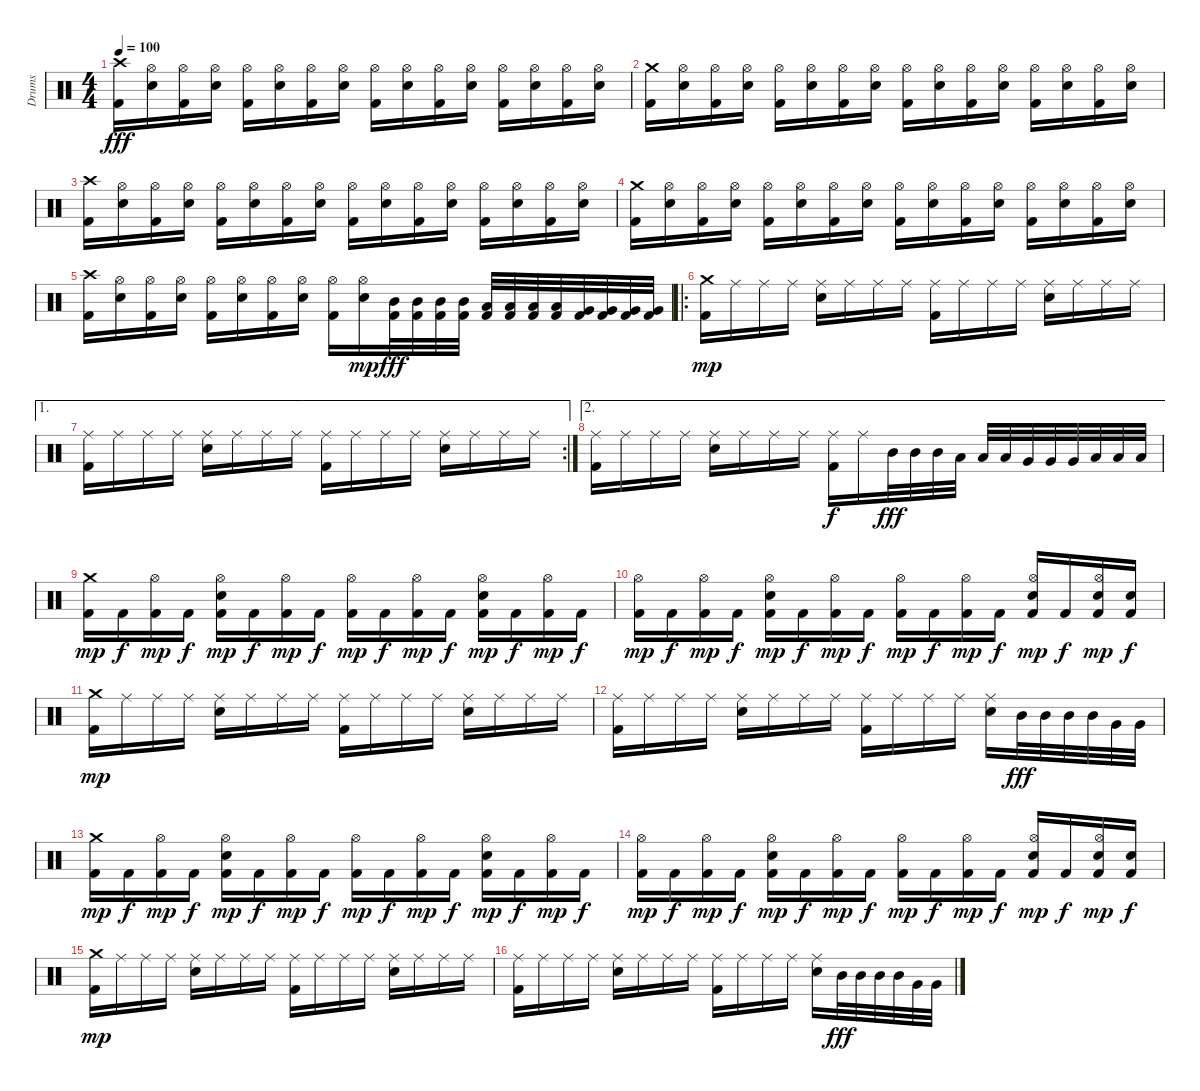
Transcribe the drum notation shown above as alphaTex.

\track ("Drums" "Drums") {instrument percussion}
\staff {score}
\articulation defaults
\ts (4 4)
\tempo 100
\clef neutral
\ks c
("Crash high (hit)" "Kick (hit) 2").16{dy fff} ("Hi-Hat (open)" "Snare (hit) 2").16 ("Hi-Hat (open)" "Kick (hit) 2").16 ("Hi-Hat (open)" "Snare (hit) 2").16 ("Hi-Hat (open)" "Kick (hit) 2").16 ("Hi-Hat (open)" "Snare (hit) 2").16 ("Hi-Hat (open)" "Kick (hit) 2").16 ("Hi-Hat (open)" "Snare (hit) 2").16 ("Hi-Hat (open)" "Kick (hit) 2").16 ("Hi-Hat (open)" "Snare (hit) 2").16 ("Hi-Hat (open)" "Kick (hit) 2").16 ("Hi-Hat (open)" "Snare (hit) 2").16 ("Hi-Hat (open)" "Kick (hit) 2").16 ("Hi-Hat (open)" "Snare (hit) 2").16 ("Hi-Hat (open)" "Kick (hit) 2").16 ("Hi-Hat (open)" "Snare (hit) 2").16 |
("Crash medium (hit)" "Kick (hit) 2").16 ("Hi-Hat (open)" "Snare (hit) 2").16 ("Hi-Hat (open)" "Kick (hit) 2").16 ("Hi-Hat (open)" "Snare (hit) 2").16 ("Hi-Hat (open)" "Kick (hit) 2").16 ("Hi-Hat (open)" "Snare (hit) 2").16 ("Hi-Hat (open)" "Kick (hit) 2").16 ("Hi-Hat (open)" "Snare (hit) 2").16 ("Hi-Hat (open)" "Kick (hit) 2").16 ("Hi-Hat (open)" "Snare (hit) 2").16 ("Hi-Hat (open)" "Kick (hit) 2").16 ("Hi-Hat (open)" "Snare (hit) 2").16 ("Hi-Hat (open)" "Kick (hit) 2").16 ("Hi-Hat (open)" "Snare (hit) 2").16 ("Hi-Hat (open)" "Kick (hit) 2").16 ("Hi-Hat (open)" "Snare (hit) 2").16 |
("Crash high (hit)" "Kick (hit) 2").16 ("Hi-Hat (open)" "Snare (hit) 2").16 ("Hi-Hat (open)" "Kick (hit) 2").16 ("Hi-Hat (open)" "Snare (hit) 2").16 ("Hi-Hat (open)" "Kick (hit) 2").16 ("Hi-Hat (open)" "Snare (hit) 2").16 ("Hi-Hat (open)" "Kick (hit) 2").16 ("Hi-Hat (open)" "Snare (hit) 2").16 ("Hi-Hat (open)" "Kick (hit) 2").16 ("Hi-Hat (open)" "Snare (hit) 2").16 ("Hi-Hat (open)" "Kick (hit) 2").16 ("Hi-Hat (open)" "Snare (hit) 2").16 ("Hi-Hat (open)" "Kick (hit) 2").16 ("Hi-Hat (open)" "Snare (hit) 2").16 ("Hi-Hat (open)" "Kick (hit) 2").16 ("Hi-Hat (open)" "Snare (hit) 2").16 |
("Crash medium (hit)" "Kick (hit) 2").16 ("Hi-Hat (open)" "Snare (hit) 2").16 ("Hi-Hat (open)" "Kick (hit) 2").16 ("Hi-Hat (open)" "Snare (hit) 2").16 ("Hi-Hat (open)" "Kick (hit) 2").16 ("Hi-Hat (open)" "Snare (hit) 2").16 ("Hi-Hat (open)" "Kick (hit) 2").16 ("Hi-Hat (open)" "Snare (hit) 2").16 ("Hi-Hat (open)" "Kick (hit) 2").16 ("Hi-Hat (open)" "Snare (hit) 2").16 ("Hi-Hat (open)" "Kick (hit) 2").16 ("Hi-Hat (open)" "Snare (hit) 2").16 ("Hi-Hat (open)" "Kick (hit) 2").16 ("Hi-Hat (open)" "Snare (hit) 2").16 ("Hi-Hat (open)" "Kick (hit) 2").16 ("Hi-Hat (open)" "Snare (hit) 2").16 |
("Crash high (hit)" "Kick (hit) 2").16 ("Hi-Hat (open)" "Snare (hit) 2").16 ("Hi-Hat (open)" "Kick (hit) 2").16 ("Hi-Hat (open)" "Snare (hit) 2").16 ("Hi-Hat (open)" "Kick (hit) 2").16 ("Hi-Hat (open)" "Snare (hit) 2").16 ("Hi-Hat (open)" "Kick (hit) 2").16 ("Hi-Hat (open)" "Snare (hit) 2").16 ("Hi-Hat (open)" "Kick (hit) 2").16 ("Hi-Hat (open)" "Snare (hit) 2").16{dy mp} ("Mid Tom (hit)" "Kick (hit) 2").32{dy fff} ("Mid Tom (hit)" "Kick (hit) 2").32 ("Mid Tom (hit)" "Kick (hit) 2").32 ("Mid Tom (hit)" "Kick (hit) 2").32 ("Low Tom (hit)" "Kick (hit) 2").32 ("Low Tom (hit)" "Kick (hit) 2").32 ("Low Tom (hit)" "Kick (hit) 2").32 ("Low Tom (hit)" "Kick (hit) 2").32 ("Very Low Tom (hit)" "Kick (hit) 2").32 ("Very Low Tom (hit)" "Kick (hit) 2").32 ("Very Low Tom (hit)" "Kick (hit) 2").32 ("Very Low Tom (hit)" "Kick (hit) 2").32 |
\ro
("Crash medium (hit)" "Kick (hit) 2").16{dy mp} "Ride (middle)".16 "Ride (middle)".16 "Ride (middle)".16 ("Ride (middle)" "Snare (hit) 2").16 "Ride (middle)".16 "Ride (middle)".16 "Ride (middle)".16 ("Ride (middle)" "Kick (hit) 2").16 "Ride (middle)".16 "Ride (middle)".16 "Ride (middle)".16 ("Ride (middle)" "Snare (hit) 2").16 "Ride (middle)".16 "Ride (middle)".16 "Ride (middle)".16 |
\ae 1
\rc 2
("Ride (middle)" "Kick (hit) 2").16 "Ride (middle)".16 "Ride (middle)".16 "Ride (middle)".16 ("Ride (middle)" "Snare (hit) 2").16 "Ride (middle)".16 "Ride (middle)".16 "Ride (middle)".16 ("Ride (middle)" "Kick (hit) 2").16 "Ride (middle)".16 "Ride (middle)".16 "Ride (middle)".16 ("Ride (middle)" "Snare (hit) 2").16 "Ride (middle)".16 "Ride (middle)".16 "Ride (middle)".16 |
\ae 2
("Ride (middle)" "Kick (hit) 2").16 "Ride (middle)".16 "Ride (middle)".16 "Ride (middle)".16 ("Ride (middle)" "Snare (hit) 2").16 "Ride (middle)".16 "Ride (middle)".16 "Ride (middle)".16 ("Ride (middle)" "Kick (hit) 2").16{dy f} "Ride (middle)".16 "Mid Tom (hit)".32{dy fff} "Mid Tom (hit)".32 "Mid Tom (hit)".32 "Low Tom (hit)".32 "Low Tom (hit)".32 "Low Tom (hit)".32 "Very Low Tom (hit)".32 "Very Low Tom (hit)".32 "Very Low Tom (hit)".32 "Low Floor Tom (hit)".32 "Low Floor Tom (hit)".32 "Low Floor Tom (hit)".32 |
("Crash medium (hit)" "Kick (hit) 2").16{dy mp} "Kick (hit) 2".16{dy f} ("Hi-Hat (open)" "Kick (hit) 2").16{dy mp} "Kick (hit) 2".16{dy f} ("Hi-Hat (open)" "Snare (hit) 2" "Kick (hit) 2").16{dy mp} "Kick (hit) 2".16{dy f} ("Hi-Hat (open)" "Kick (hit) 2").16{dy mp} "Kick (hit) 2".16{dy f} ("Hi-Hat (open)" "Kick (hit) 2").16{dy mp} "Kick (hit) 2".16{dy f} ("Hi-Hat (open)" "Kick (hit) 2").16{dy mp} "Kick (hit) 2".16{dy f} ("Hi-Hat (open)" "Snare (hit) 2" "Kick (hit) 2").16{dy mp} "Kick (hit) 2".16{dy f} ("Hi-Hat (open)" "Kick (hit) 2").16{dy mp} "Kick (hit) 2".16{dy f} |
("Hi-Hat (open)" "Kick (hit) 2").16{dy mp} "Kick (hit) 2".16{dy f} ("Hi-Hat (open)" "Kick (hit) 2").16{dy mp} "Kick (hit) 2".16{dy f} ("Hi-Hat (open)" "Snare (hit) 2" "Kick (hit) 2").16{dy mp} "Kick (hit) 2".16{dy f} ("Hi-Hat (open)" "Kick (hit) 2").16{dy mp} "Kick (hit) 2".16{dy f} ("Hi-Hat (open)" "Kick (hit) 2").16{dy mp} "Kick (hit) 2".16{dy f} ("Hi-Hat (open)" "Kick (hit) 2").16{dy mp} "Kick (hit) 2".16{dy f} ("Hi-Hat (open)" "Snare (hit) 2" "Kick (hit) 2").16{dy mp} "Kick (hit) 2".16{dy f} ("Hi-Hat (open)" "Snare (hit) 2" "Kick (hit) 2").16{dy mp} ("Snare (hit) 2" "Kick (hit) 2").16{dy f} |
("Crash medium (hit)" "Kick (hit) 2").16{dy mp} "Ride (middle)".16 "Ride (middle)".16 "Ride (middle)".16 ("Ride (middle)" "Snare (hit) 2").16 "Ride (middle)".16 "Ride (middle)".16 "Ride (middle)".16 ("Ride (middle)" "Kick (hit) 2").16 "Ride (middle)".16 "Ride (middle)".16 "Ride (middle)".16 ("Ride (middle)" "Snare (hit) 2").16 "Ride (middle)".16 "Ride (middle)".16 "Ride (middle)".16 |
("Ride (middle)" "Kick (hit) 2").16 "Ride (middle)".16 "Ride (middle)".16 "Ride (middle)".16 ("Ride (middle)" "Snare (hit) 2").16 "Ride (middle)".16 "Ride (middle)".16 "Ride (middle)".16 ("Ride (middle)" "Kick (hit) 2").16 "Ride (middle)".16 "Ride (middle)".16 "Ride (middle)".16 ("Ride (middle)" "Snare (hit) 2").16 "Mid Tom (hit)".32{dy fff} "Mid Tom (hit)".32 "Mid Tom (hit)".32 "Mid Tom (hit)".32 "Very Low Tom (hit)".32 "Very Low Tom (hit)".32 |
("Crash medium (hit)" "Kick (hit) 2").16{dy mp} "Kick (hit) 2".16{dy f} ("Hi-Hat (open)" "Kick (hit) 2").16{dy mp} "Kick (hit) 2".16{dy f} ("Hi-Hat (open)" "Snare (hit) 2" "Kick (hit) 2").16{dy mp} "Kick (hit) 2".16{dy f} ("Hi-Hat (open)" "Kick (hit) 2").16{dy mp} "Kick (hit) 2".16{dy f} ("Hi-Hat (open)" "Kick (hit) 2").16{dy mp} "Kick (hit) 2".16{dy f} ("Hi-Hat (open)" "Kick (hit) 2").16{dy mp} "Kick (hit) 2".16{dy f} ("Hi-Hat (open)" "Snare (hit) 2" "Kick (hit) 2").16{dy mp} "Kick (hit) 2".16{dy f} ("Hi-Hat (open)" "Kick (hit) 2").16{dy mp} "Kick (hit) 2".16{dy f} |
("Hi-Hat (open)" "Kick (hit) 2").16{dy mp} "Kick (hit) 2".16{dy f} ("Hi-Hat (open)" "Kick (hit) 2").16{dy mp} "Kick (hit) 2".16{dy f} ("Hi-Hat (open)" "Snare (hit) 2" "Kick (hit) 2").16{dy mp} "Kick (hit) 2".16{dy f} ("Hi-Hat (open)" "Kick (hit) 2").16{dy mp} "Kick (hit) 2".16{dy f} ("Hi-Hat (open)" "Kick (hit) 2").16{dy mp} "Kick (hit) 2".16{dy f} ("Hi-Hat (open)" "Kick (hit) 2").16{dy mp} "Kick (hit) 2".16{dy f} ("Hi-Hat (open)" "Snare (hit) 2" "Kick (hit) 2").16{dy mp} "Kick (hit) 2".16{dy f} ("Hi-Hat (open)" "Snare (hit) 2" "Kick (hit) 2").16{dy mp} ("Snare (hit) 2" "Kick (hit) 2").16{dy f} |
("Crash medium (hit)" "Kick (hit) 2").16{dy mp} "Ride (middle)".16 "Ride (middle)".16 "Ride (middle)".16 ("Ride (middle)" "Snare (hit) 2").16 "Ride (middle)".16 "Ride (middle)".16 "Ride (middle)".16 ("Ride (middle)" "Kick (hit) 2").16 "Ride (middle)".16 "Ride (middle)".16 "Ride (middle)".16 ("Ride (middle)" "Snare (hit) 2").16 "Ride (middle)".16 "Ride (middle)".16 "Ride (middle)".16 |
("Ride (middle)" "Kick (hit) 2").16 "Ride (middle)".16 "Ride (middle)".16 "Ride (middle)".16 ("Ride (middle)" "Snare (hit) 2").16 "Ride (middle)".16 "Ride (middle)".16 "Ride (middle)".16 ("Ride (middle)" "Kick (hit) 2").16 "Ride (middle)".16 "Ride (middle)".16 "Ride (middle)".16 ("Ride (middle)" "Snare (hit) 2").16 "Mid Tom (hit)".32{dy fff} "Mid Tom (hit)".32 "Mid Tom (hit)".32 "Mid Tom (hit)".32 "Very Low Tom (hit)".32 "Very Low Tom (hit)".32
